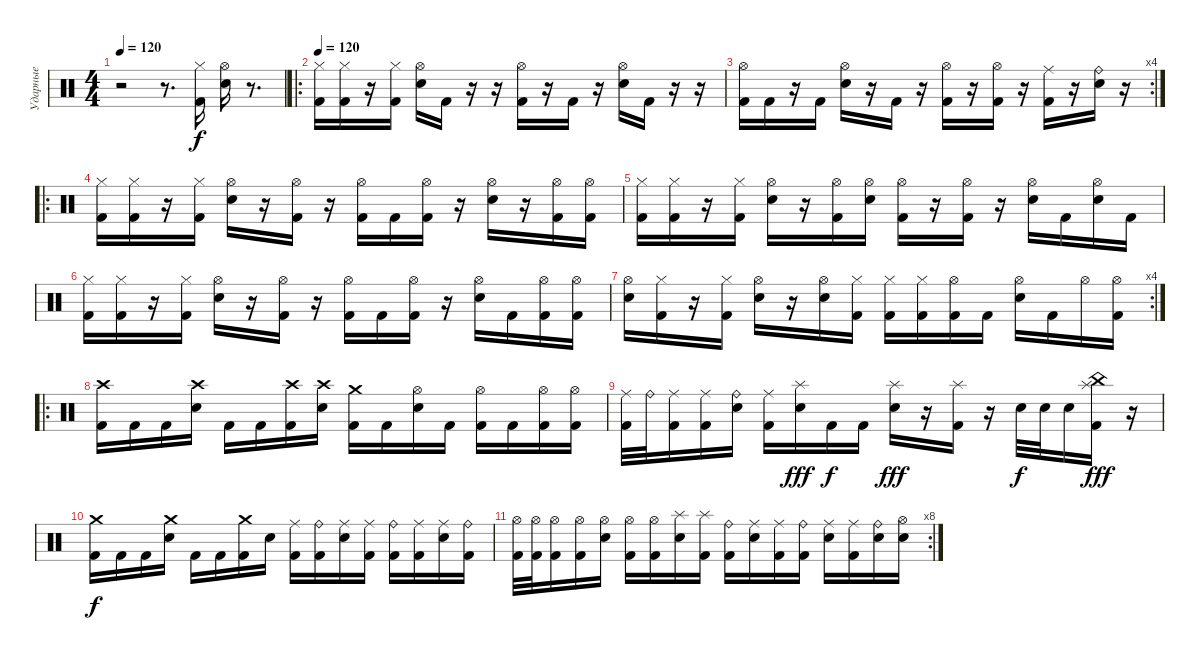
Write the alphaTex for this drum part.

\track ("Ударные" "Ударные") {instrument percussion}
\staff {score}
\articulation defaults
\ts (4 4)
\tempo 120
\clef neutral
\ks c
r.2{dy f} r.8{d} ("Hi-Hat (closed)" "Kick (hit) 2").16 ("Hi-Hat (open)" "Electric Snare (hit)").16 r.8{d} |
\ro
\tempo 120
("Hi-Hat (closed)" "Kick (hit) 2").16 ("Hi-Hat (closed)" "Kick (hit) 2").16 r.16 ("Hi-Hat (closed)" "Kick (hit) 2").16 ("Hi-Hat (open)" "Electric Snare (hit)").16 "Kick (hit) 2".16 r.16 r.16 ("Hi-Hat (open)" "Kick (hit) 2").16 r.16 "Kick (hit) 2".16 r.16 ("Hi-Hat (open)" "Electric Snare (hit)").16 "Kick (hit) 2".16 r.16 r.16 |
\rc 4
("Hi-Hat (open)" "Kick (hit) 2").16 "Kick (hit) 2".16 r.16 "Kick (hit) 2".16 ("Hi-Hat (open)" "Electric Snare (hit)").16 r.16 "Kick (hit) 2".16 r.16 ("Hi-Hat (open)" "Kick (hit) 2").16 r.16 ("Hi-Hat (open)" "Kick (hit) 2").16 r.16 ("Ride (middle)" "Kick (hit) 2").16 r.16 ("Ride (bell)" "Electric Snare (hit)").16 r.16 |
\ro
("Hi-Hat (closed)" "Kick (hit) 2").16 ("Hi-Hat (closed)" "Kick (hit) 2").16 r.16 ("Hi-Hat (closed)" "Kick (hit) 2").16 ("Hi-Hat (open)" "Electric Snare (hit)").16 r.16 ("Hi-Hat (open)" "Kick (hit) 2").16 r.16 ("Hi-Hat (open)" "Kick (hit) 2").16 "Kick (hit) 2".16 ("Hi-Hat (open)" "Kick (hit) 2").16 r.16 ("Hi-Hat (open)" "Electric Snare (hit)").16 r.16 ("Hi-Hat (open)" "Kick (hit) 2").16 ("Hi-Hat (open)" "Kick (hit) 2").16 |
("Hi-Hat (closed)" "Kick (hit) 2").16 ("Hi-Hat (closed)" "Kick (hit) 2").16 r.16 ("Hi-Hat (closed)" "Kick (hit) 2").16 ("Hi-Hat (open)" "Electric Snare (hit)").16 r.16 ("Hi-Hat (open)" "Kick (hit) 2").16 ("Hi-Hat (open)" "Electric Snare (hit)").16 ("Hi-Hat (open)" "Kick (hit) 2").16 r.16 ("Hi-Hat (open)" "Kick (hit) 2").16 r.16 ("Hi-Hat (open)" "Electric Snare (hit)").16 "Kick (hit) 2".16 ("Hi-Hat (open)" "Electric Snare (hit)").16 "Kick (hit) 2".16 |
("Hi-Hat (closed)" "Kick (hit) 2").16 ("Hi-Hat (closed)" "Kick (hit) 2").16 r.16 ("Hi-Hat (closed)" "Kick (hit) 2").16 ("Hi-Hat (open)" "Electric Snare (hit)").16 r.16 ("Hi-Hat (open)" "Kick (hit) 2").16 r.16 ("Hi-Hat (open)" "Kick (hit) 2").16 "Kick (hit) 2".16 ("Hi-Hat (open)" "Kick (hit) 2").16 r.16 ("Hi-Hat (open)" "Electric Snare (hit)").16 "Kick (hit) 2".16 ("Hi-Hat (open)" "Kick (hit) 2").16 ("Hi-Hat (open)" "Kick (hit) 2").16 |
\rc 4
("Hi-Hat (open)" "Electric Snare (hit)").16 ("Hi-Hat (closed)" "Kick (hit) 2").16 r.16 ("Hi-Hat (closed)" "Kick (hit) 2").16 ("Hi-Hat (open)" "Electric Snare (hit)").16 r.16 ("Hi-Hat (open)" "Electric Snare (hit)").16 ("Hi-Hat (closed)" "Kick (hit) 2").16 ("Hi-Hat (closed)" "Kick (hit) 2").16 ("Hi-Hat (closed)" "Kick (hit) 2").16 ("Hi-Hat (open)" "Kick (hit) 2").16 "Kick (hit) 2".16 ("Hi-Hat (open)" "Electric Snare (hit)").16 "Kick (hit) 2".16 "Hi-Hat (open)".16 ("Hi-Hat (open)" "Kick (hit) 2").16 |
\ro
("Crash high (hit)" "Kick (hit) 2").16 "Kick (hit) 2".16 "Kick (hit) 2".16 ("Crash high (hit)" "Electric Snare (hit)").16 "Kick (hit) 2".16 "Kick (hit) 2".16 ("Crash high (hit)" "Kick (hit) 2").16 ("Crash high (hit)" "Electric Snare (hit)").16 ("Crash medium (hit)" "Kick (hit) 2").16 "Kick (hit) 2".16 ("Hi-Hat (open)" "Electric Snare (hit)").16 "Kick (hit) 2".16 ("Hi-Hat (open)" "Kick (hit) 2").16 "Kick (hit) 2".16 ("Hi-Hat (open)" "Kick (hit) 2").16 ("Hi-Hat (open)" "Kick (hit) 2").16 |
("Ride (middle)" "Kick (hit) 2").32 "Ride (bell)".32 ("Ride (middle)" "Kick (hit) 2").16 ("Ride (middle)" "Kick (hit) 2").16 ("Ride (bell)" "Electric Snare (hit)").16 ("Ride (middle)" "Kick (hit) 2").16 ("Splash (hit)" "Electric Snare (hit)").16{dy fff} "Kick (hit) 2".16{dy f} "Kick (hit) 2".16 ("Splash (hit)" "Electric Snare (hit)").16{dy fff} r.16 ("Splash (hit)" "Kick (hit) 2").16 r.16 "Electric Snare (hit)".32{dy f} "Electric Snare (hit)".32 "Electric Snare (hit)".16 ("China (hit)" "Splash (hit)" "Kick (hit) 2").16{dy fff} r.16 |
("Crash medium (hit)" "Kick (hit) 2").16{dy f} "Kick (hit) 2".16 "Kick (hit) 2".16 ("Crash medium (hit)" "Electric Snare (hit)").16 "Kick (hit) 2".16 "Kick (hit) 2".16 ("Crash medium (hit)" "Kick (hit) 2").16 "Electric Snare (hit)".16 ("Ride (middle)" "Kick (hit) 2").16 ("Ride (bell)" "Kick (hit) 2").16 ("Ride (middle)" "Electric Snare (hit)").16 ("Ride (middle)" "Kick (hit) 2").16 ("Ride (bell)" "Kick (hit) 2").16 ("Ride (middle)" "Kick (hit) 2").16 ("Ride (middle)" "Electric Snare (hit)").16 ("Ride (bell)" "Kick (hit) 2").16 |
\rc 8
("Hi-Hat (open)" "Kick (hit) 2").32 ("Hi-Hat (open)" "Kick (hit) 2").32 ("Hi-Hat (open)" "Kick (hit) 2").16 ("Hi-Hat (open)" "Kick (hit) 2").16 ("Hi-Hat (open)" "Electric Snare (hit)").16 ("Hi-Hat (open)" "Kick (hit) 2").16 ("Hi-Hat (open)" "Kick (hit) 2").16 ("Splash (hit)" "Electric Snare (hit)").16 ("Splash (hit)" "Kick (hit) 2").16 ("Ride (bell)" "Kick (hit) 2").16 ("Ride (middle)" "Electric Snare (hit)").16 ("Ride (middle)" "Kick (hit) 2").16 ("Ride (bell)" "Kick (hit) 2").16 ("Ride (middle)" "Electric Snare (hit)").16 ("Ride (middle)" "Kick (hit) 2").16 ("Ride (bell)" "Electric Snare (hit)").16 ("Hi-Hat (open)" "Electric Snare (hit)").16
